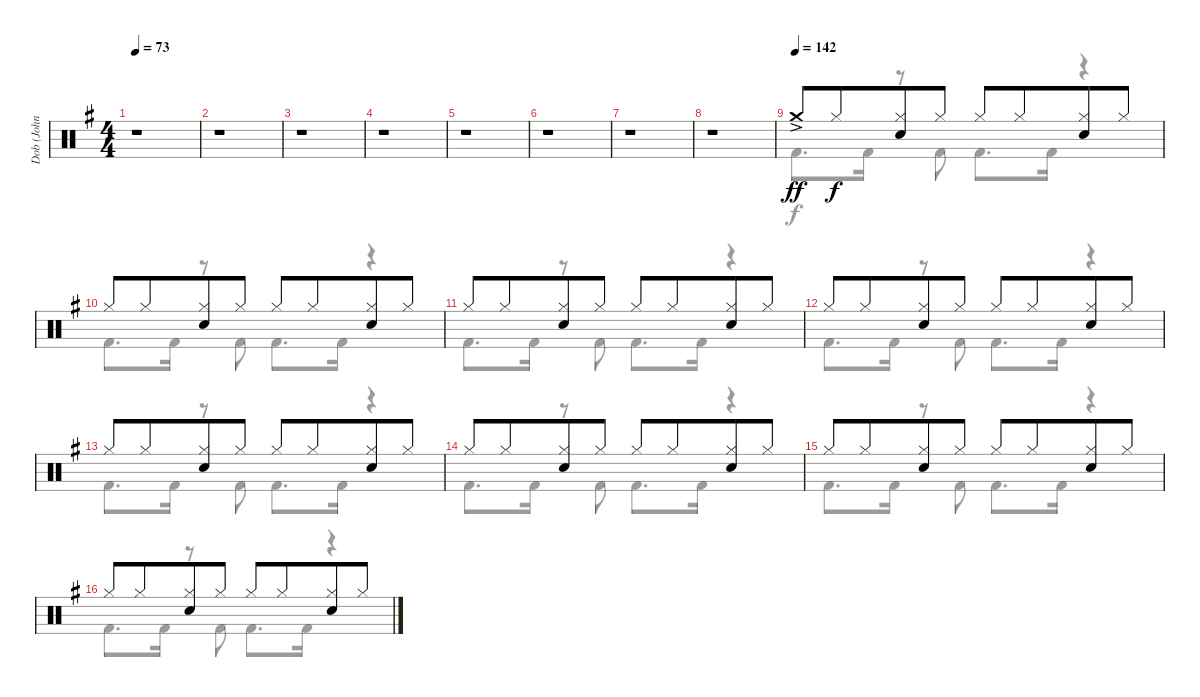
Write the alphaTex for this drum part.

\track ("Dob (John O'Reilly)" "Dob (John ") {instrument percussion}
\staff {score}
\articulation defaults
\voice
\ts (4 4)
\tempo 73
\clef neutral
\ks g
r.1{dy ff} |
r.1 |
r.1 |
r.1 |
r.1 |
r.1 |
r.1 |
r.1 |
\tempo (142)
"Crash medium (hit)"{ac}.8 "Hi-Hat (closed)".8{dy f beam merge} ("Hi-Hat (closed)" "Electric Snare (hit)").8 "Hi-Hat (closed)".8 "Hi-Hat (closed)".8 "Hi-Hat (closed)".8{beam merge} ("Hi-Hat (closed)" "Electric Snare (hit)").8 "Hi-Hat (closed)".8 |
"Hi-Hat (closed)".8 "Hi-Hat (closed)".8{beam merge} ("Hi-Hat (closed)" "Electric Snare (hit)").8 "Hi-Hat (closed)".8 "Hi-Hat (closed)".8 "Hi-Hat (closed)".8{beam merge} ("Hi-Hat (closed)" "Electric Snare (hit)").8 "Hi-Hat (closed)".8 |
"Hi-Hat (closed)".8 "Hi-Hat (closed)".8{beam merge} ("Hi-Hat (closed)" "Electric Snare (hit)").8 "Hi-Hat (closed)".8 "Hi-Hat (closed)".8 "Hi-Hat (closed)".8{beam merge} ("Hi-Hat (closed)" "Electric Snare (hit)").8 "Hi-Hat (closed)".8 |
"Hi-Hat (closed)".8 "Hi-Hat (closed)".8{beam merge} ("Hi-Hat (closed)" "Electric Snare (hit)").8 "Hi-Hat (closed)".8 "Hi-Hat (closed)".8 "Hi-Hat (closed)".8{beam merge} ("Hi-Hat (closed)" "Electric Snare (hit)").8 "Hi-Hat (closed)".8 |
"Hi-Hat (closed)".8 "Hi-Hat (closed)".8{beam merge} ("Hi-Hat (closed)" "Electric Snare (hit)").8 "Hi-Hat (closed)".8 "Hi-Hat (closed)".8 "Hi-Hat (closed)".8{beam merge} ("Hi-Hat (closed)" "Electric Snare (hit)").8 "Hi-Hat (closed)".8 |
"Hi-Hat (closed)".8 "Hi-Hat (closed)".8{beam merge} ("Hi-Hat (closed)" "Electric Snare (hit)").8 "Hi-Hat (closed)".8 "Hi-Hat (closed)".8 "Hi-Hat (closed)".8{beam merge} ("Hi-Hat (closed)" "Electric Snare (hit)").8 "Hi-Hat (closed)".8 |
"Hi-Hat (closed)".8 "Hi-Hat (closed)".8{beam merge} ("Hi-Hat (closed)" "Electric Snare (hit)").8 "Hi-Hat (closed)".8 "Hi-Hat (closed)".8 "Hi-Hat (closed)".8{beam merge} ("Hi-Hat (closed)" "Electric Snare (hit)").8 "Hi-Hat (closed)".8 |
"Hi-Hat (closed)".8 "Hi-Hat (closed)".8{beam merge} ("Hi-Hat (closed)" "Electric Snare (hit)").8 "Hi-Hat (closed)".8 "Hi-Hat (closed)".8 "Hi-Hat (closed)".8{beam merge} ("Hi-Hat (closed)" "Electric Snare (hit)").8 "Hi-Hat (closed)".8
\voice
\clef neutral
\ottava regular
\simile none
\ks g
|
|
|
|
|
|
|
|
"Kick (hit) 2".8{d} "Kick (hit) 2".16 r.8 "Kick (hit) 2".8 "Kick (hit) 2".8{d} "Kick (hit) 2".16 r.4 |
"Kick (hit) 2".8{d} "Kick (hit) 2".16 r.8 "Kick (hit) 2".8 "Kick (hit) 2".8{d} "Kick (hit) 2".16 r.4 |
"Kick (hit) 2".8{d} "Kick (hit) 2".16 r.8 "Kick (hit) 2".8 "Kick (hit) 2".8{d} "Kick (hit) 2".16 r.4 |
"Kick (hit) 2".8{d} "Kick (hit) 2".16 r.8 "Kick (hit) 2".8 "Kick (hit) 2".8{d} "Kick (hit) 2".16 r.4 |
"Kick (hit) 2".8{d} "Kick (hit) 2".16 r.8 "Kick (hit) 2".8 "Kick (hit) 2".8{d} "Kick (hit) 2".16 r.4 |
"Kick (hit) 2".8{d} "Kick (hit) 2".16 r.8 "Kick (hit) 2".8 "Kick (hit) 2".8{d} "Kick (hit) 2".16 r.4 |
"Kick (hit) 2".8{d} "Kick (hit) 2".16 r.8 "Kick (hit) 2".8 "Kick (hit) 2".8{d} "Kick (hit) 2".16 r.4 |
"Kick (hit) 2".8{d} "Kick (hit) 2".16 r.8 "Kick (hit) 2".8 "Kick (hit) 2".8{d} "Kick (hit) 2".16 r.4
